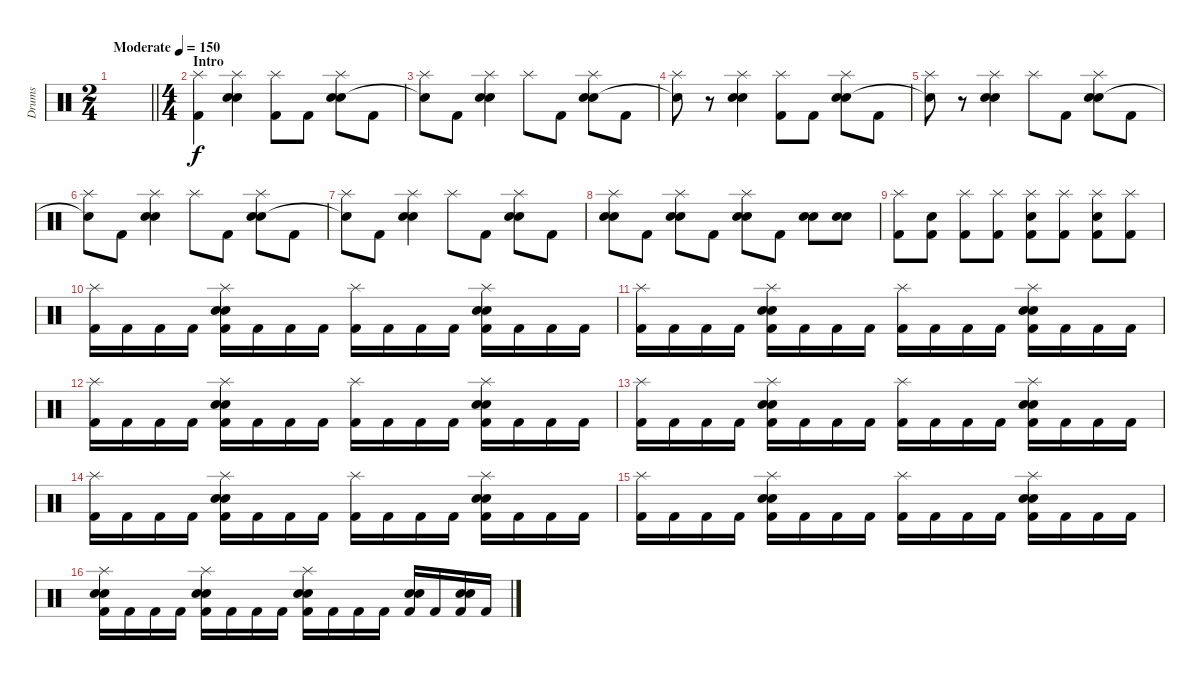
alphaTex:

\track ("Drums" "Drums") {instrument percussion}
\staff {score}
\articulation defaults
\ts (2 4)
\tempo (150 "Moderate")
\clef neutral
\barLineRight lightlight
\ks c
|
\ts (4 4)
\section ("" "Intro")
("Splash (hit)" "Kick (hit) 2").4 ("Splash (hit)" "Electric Snare (hit)" "Snare (hit) 2").4 ("Splash (hit)" "Kick (hit) 2").8 "Kick (hit) 2".8 ("Splash (hit)" "Electric Snare (hit)" "Snare (hit) 2").8 "Kick (hit) 2".8 |
("Splash (hit)" "Snare (hit)"{t}).8 "Kick (hit) 2".8 ("Splash (hit)" "Electric Snare (hit)" "Snare (hit) 2").4 "Splash (hit)".8 "Kick (hit) 2".8 ("Splash (hit)" "Electric Snare (hit)" "Snare (hit) 2").8 "Kick (hit) 2".8 |
("Splash (hit)" "Snare (hit)"{t}).8 r.8 ("Splash (hit)" "Electric Snare (hit)" "Snare (hit) 2").4 ("Splash (hit)" "Kick (hit) 2").8 "Kick (hit) 2".8 ("Splash (hit)" "Electric Snare (hit)" "Snare (hit) 2").8 "Kick (hit) 2".8 |
("Splash (hit)" "Snare (hit)"{t}).8 r.8 ("Splash (hit)" "Electric Snare (hit)" "Snare (hit) 2").4 "Splash (hit)".8 "Kick (hit) 2".8 ("Splash (hit)" "Electric Snare (hit)" "Snare (hit) 2").8 "Kick (hit) 2".8 |
("Splash (hit)" "Snare (hit)"{t}).8 "Kick (hit) 2".8 ("Splash (hit)" "Electric Snare (hit)" "Snare (hit) 2").4 "Splash (hit)".8 "Kick (hit) 2".8 ("Splash (hit)" "Electric Snare (hit)" "Snare (hit) 2").8 "Kick (hit) 2".8 |
("Splash (hit)" "Snare (hit)"{t}).8 "Kick (hit) 2".8 ("Splash (hit)" "Electric Snare (hit)" "Snare (hit) 2").4 "Splash (hit)".8 "Kick (hit) 2".8 ("Splash (hit)" "Electric Snare (hit)" "Snare (hit) 2").8 "Kick (hit) 2".8 |
("Splash (hit)" "Electric Snare (hit)" "Snare (hit) 2").8 "Kick (hit) 2".8 ("Splash (hit)" "Electric Snare (hit)" "Snare (hit) 2").8 "Kick (hit) 2".8 ("Splash (hit)" "Electric Snare (hit)" "Snare (hit) 2").8 "Kick (hit) 2".8 ("Electric Snare (hit)" "Snare (hit) 2").8 ("Electric Snare (hit)" "Snare (hit) 2").8 |
("Splash (hit)" "Kick (hit) 2").8 ("Electric Snare (hit)" "Kick (hit) 2").8 ("Splash (hit)" "Kick (hit) 2").8 ("Splash (hit)" "Kick (hit) 2").8 ("Splash (hit)" "Electric Snare (hit)" "Kick (hit) 2").8 ("Splash (hit)" "Kick (hit) 2").8 ("Splash (hit)" "Electric Snare (hit)" "Kick (hit) 2").8 ("Splash (hit)" "Kick (hit) 2").8 |
("Splash (hit)" "Kick (hit) 2").16 "Kick (hit) 2".16 "Kick (hit) 2".16 "Kick (hit) 2".16 ("Splash (hit)" "Electric Snare (hit)" "Snare (hit) 2" "Kick (hit) 2").16 "Kick (hit) 2".16 "Kick (hit) 2".16 "Kick (hit) 2".16 ("Splash (hit)" "Kick (hit) 2").16 "Kick (hit) 2".16 "Kick (hit) 2".16 "Kick (hit) 2".16 ("Splash (hit)" "Electric Snare (hit)" "Snare (hit) 2" "Kick (hit) 2").16 "Kick (hit) 2".16 "Kick (hit) 2".16 "Kick (hit) 2".16 |
("Splash (hit)" "Kick (hit) 2").16 "Kick (hit) 2".16 "Kick (hit) 2".16 "Kick (hit) 2".16 ("Splash (hit)" "Electric Snare (hit)" "Snare (hit) 2" "Kick (hit) 2").16 "Kick (hit) 2".16 "Kick (hit) 2".16 "Kick (hit) 2".16 ("Splash (hit)" "Kick (hit) 2").16 "Kick (hit) 2".16 "Kick (hit) 2".16 "Kick (hit) 2".16 ("Splash (hit)" "Electric Snare (hit)" "Snare (hit) 2" "Kick (hit) 2").16 "Kick (hit) 2".16 "Kick (hit) 2".16 "Kick (hit) 2".16 |
("Splash (hit)" "Kick (hit) 2").16 "Kick (hit) 2".16 "Kick (hit) 2".16 "Kick (hit) 2".16 ("Splash (hit)" "Electric Snare (hit)" "Snare (hit) 2" "Kick (hit) 2").16 "Kick (hit) 2".16 "Kick (hit) 2".16 "Kick (hit) 2".16 ("Splash (hit)" "Kick (hit) 2").16 "Kick (hit) 2".16 "Kick (hit) 2".16 "Kick (hit) 2".16 ("Splash (hit)" "Electric Snare (hit)" "Snare (hit) 2" "Kick (hit) 2").16 "Kick (hit) 2".16 "Kick (hit) 2".16 "Kick (hit) 2".16 |
("Splash (hit)" "Kick (hit) 2").16 "Kick (hit) 2".16 "Kick (hit) 2".16 "Kick (hit) 2".16 ("Splash (hit)" "Electric Snare (hit)" "Snare (hit) 2" "Kick (hit) 2").16 "Kick (hit) 2".16 "Kick (hit) 2".16 "Kick (hit) 2".16 ("Splash (hit)" "Kick (hit) 2").16 "Kick (hit) 2".16 "Kick (hit) 2".16 "Kick (hit) 2".16 ("Splash (hit)" "Electric Snare (hit)" "Snare (hit) 2" "Kick (hit) 2").16 "Kick (hit) 2".16 "Kick (hit) 2".16 "Kick (hit) 2".16 |
("Splash (hit)" "Kick (hit) 2").16 "Kick (hit) 2".16 "Kick (hit) 2".16 "Kick (hit) 2".16 ("Splash (hit)" "Electric Snare (hit)" "Snare (hit) 2" "Kick (hit) 2").16 "Kick (hit) 2".16 "Kick (hit) 2".16 "Kick (hit) 2".16 ("Splash (hit)" "Kick (hit) 2").16 "Kick (hit) 2".16 "Kick (hit) 2".16 "Kick (hit) 2".16 ("Splash (hit)" "Electric Snare (hit)" "Snare (hit) 2" "Kick (hit) 2").16 "Kick (hit) 2".16 "Kick (hit) 2".16 "Kick (hit) 2".16 |
("Splash (hit)" "Kick (hit) 2").16 "Kick (hit) 2".16 "Kick (hit) 2".16 "Kick (hit) 2".16 ("Splash (hit)" "Electric Snare (hit)" "Snare (hit) 2" "Kick (hit) 2").16 "Kick (hit) 2".16 "Kick (hit) 2".16 "Kick (hit) 2".16 ("Splash (hit)" "Kick (hit) 2").16 "Kick (hit) 2".16 "Kick (hit) 2".16 "Kick (hit) 2".16 ("Splash (hit)" "Electric Snare (hit)" "Snare (hit) 2" "Kick (hit) 2").16 "Kick (hit) 2".16 "Kick (hit) 2".16 "Kick (hit) 2".16 |
("Splash (hit)" "Electric Snare (hit)" "Snare (hit) 2" "Kick (hit) 2").16 "Kick (hit) 2".16 "Kick (hit) 2".16 "Kick (hit) 2".16 ("Splash (hit)" "Electric Snare (hit)" "Snare (hit) 2" "Kick (hit) 2").16 "Kick (hit) 2".16 "Kick (hit) 2".16 "Kick (hit) 2".16 ("Splash (hit)" "Electric Snare (hit)" "Snare (hit) 2" "Kick (hit) 2").16 "Kick (hit) 2".16 "Kick (hit) 2".16 "Kick (hit) 2".16 ("Electric Snare (hit)" "Snare (hit) 2" "Kick (hit) 2").16 "Kick (hit) 2".16 ("Electric Snare (hit)" "Snare (hit) 2" "Kick (hit) 2").16 "Kick (hit) 2".16
